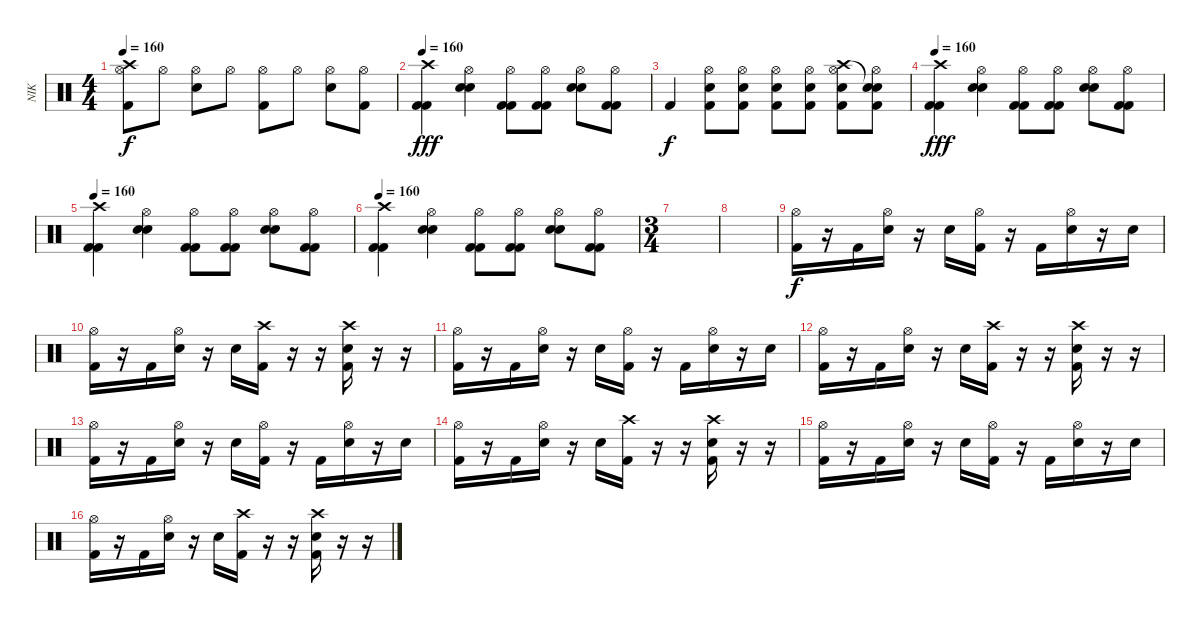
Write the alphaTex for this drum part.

\track ("NIK" "NIK") {instrument percussion}
\staff {score}
\articulation defaults
\ts (4 4)
\tempo 160
\clef neutral
\ks c
("Crash high (hit)" "Hi-Hat (open)" "Kick (hit) 2").8{dy f} "Hi-Hat (open)".8 ("Hi-Hat (open)" "Electric Snare (hit)").8 "Hi-Hat (open)".8 ("Hi-Hat (open)" "Kick (hit) 2").8 "Hi-Hat (open)".8 ("Hi-Hat (open)" "Electric Snare (hit)").8 ("Hi-Hat (open)" "Kick (hit) 2").8 |
\tempo 160
("Crash high (hit)" "Kick (hit) 2" "Kick (hit) 2").4{dy fff} ("Hi-Hat (open)" "Electric Snare (hit)" "Electric Snare (hit)").4 ("Hi-Hat (open)" "Kick (hit) 2" "Kick (hit) 2").8 ("Hi-Hat (open)" "Kick (hit) 2" "Kick (hit) 2").8 ("Hi-Hat (open)" "Electric Snare (hit)" "Electric Snare (hit)").8 ("Hi-Hat (open)" "Kick (hit) 2" "Kick (hit) 2").8 |
"Kick (hit) 2".4{dy f} ("Electric Snare (hit)" "Hi-Hat (open)" "Kick (hit) 2").8 ("Electric Snare (hit)" "Hi-Hat (open)" "Kick (hit) 2").8 ("Electric Snare (hit)" "Hi-Hat (open)" "Kick (hit) 2").8 ("Electric Snare (hit)" "Hi-Hat (open)" "Kick (hit) 2").8 ("Electric Snare (hit)" "Hi-Hat (open)" "Kick (hit) 2" "Crash high (hit)").8 ("Electric Snare (hit)" "Hi-Hat (open)" "Kick (hit) 2" "Snare (hit)"{t}).8 |
\tempo 160
("Crash high (hit)" "Kick (hit) 2" "Kick (hit) 2").4{dy fff} ("Hi-Hat (open)" "Electric Snare (hit)" "Electric Snare (hit)").4 ("Hi-Hat (open)" "Kick (hit) 2" "Kick (hit) 2").8 ("Hi-Hat (open)" "Kick (hit) 2" "Kick (hit) 2").8 ("Hi-Hat (open)" "Electric Snare (hit)" "Electric Snare (hit)").8 ("Hi-Hat (open)" "Kick (hit) 2" "Kick (hit) 2").8 |
\tempo 160
("Crash high (hit)" "Kick (hit) 2" "Kick (hit) 2").4 ("Hi-Hat (open)" "Electric Snare (hit)" "Electric Snare (hit)").4 ("Hi-Hat (open)" "Kick (hit) 2" "Kick (hit) 2").8 ("Hi-Hat (open)" "Kick (hit) 2" "Kick (hit) 2").8 ("Hi-Hat (open)" "Electric Snare (hit)" "Electric Snare (hit)").8 ("Hi-Hat (open)" "Kick (hit) 2" "Kick (hit) 2").8 |
\tempo 160
("Crash high (hit)" "Kick (hit) 2" "Kick (hit) 2").4 ("Hi-Hat (open)" "Electric Snare (hit)" "Electric Snare (hit)").4 ("Hi-Hat (open)" "Kick (hit) 2" "Kick (hit) 2").8 ("Hi-Hat (open)" "Kick (hit) 2" "Kick (hit) 2").8 ("Hi-Hat (open)" "Electric Snare (hit)" "Electric Snare (hit)").8 ("Hi-Hat (open)" "Kick (hit) 2" "Kick (hit) 2").8 |
\ts (3 4)
|
|
("Hi-Hat (open)" "Kick (hit) 2").16{dy f} r.16 "Kick (hit) 2".16 ("Hi-Hat (open)" "Snare (hit) 2").16 r.16 "Snare (hit) 2".16 ("Hi-Hat (open)" "Kick (hit) 2").16 r.16 "Kick (hit) 2".16 ("Hi-Hat (open)" "Snare (hit) 2").16 r.16 "Snare (hit) 2".16 |
("Hi-Hat (open)" "Kick (hit) 2").16 r.16 "Kick (hit) 2".16 ("Hi-Hat (open)" "Snare (hit) 2").16 r.16 "Snare (hit) 2".16 ("Crash high (hit)" "Kick (hit) 2").16 r.16 r.16 ("Crash high (hit)" "Snare (hit) 2" "Kick (hit) 2").16 r.16 r.16 |
("Hi-Hat (open)" "Kick (hit) 2").16 r.16 "Kick (hit) 2".16 ("Hi-Hat (open)" "Snare (hit) 2").16 r.16 "Snare (hit) 2".16 ("Hi-Hat (open)" "Kick (hit) 2").16 r.16 "Kick (hit) 2".16 ("Hi-Hat (open)" "Snare (hit) 2").16 r.16 "Snare (hit) 2".16 |
("Hi-Hat (open)" "Kick (hit) 2").16 r.16 "Kick (hit) 2".16 ("Hi-Hat (open)" "Snare (hit) 2").16 r.16 "Snare (hit) 2".16 ("Crash high (hit)" "Kick (hit) 2").16 r.16 r.16 ("Crash high (hit)" "Snare (hit) 2" "Kick (hit) 2").16 r.16 r.16 |
("Hi-Hat (open)" "Kick (hit) 2").16 r.16 "Kick (hit) 2".16 ("Hi-Hat (open)" "Snare (hit) 2").16 r.16 "Snare (hit) 2".16 ("Hi-Hat (open)" "Kick (hit) 2").16 r.16 "Kick (hit) 2".16 ("Hi-Hat (open)" "Snare (hit) 2").16 r.16 "Snare (hit) 2".16 |
("Hi-Hat (open)" "Kick (hit) 2").16 r.16 "Kick (hit) 2".16 ("Hi-Hat (open)" "Snare (hit) 2").16 r.16 "Snare (hit) 2".16 ("Crash high (hit)" "Kick (hit) 2").16 r.16 r.16 ("Crash high (hit)" "Snare (hit) 2" "Kick (hit) 2").16 r.16 r.16 |
("Hi-Hat (open)" "Kick (hit) 2").16 r.16 "Kick (hit) 2".16 ("Hi-Hat (open)" "Snare (hit) 2").16 r.16 "Snare (hit) 2".16 ("Hi-Hat (open)" "Kick (hit) 2").16 r.16 "Kick (hit) 2".16 ("Hi-Hat (open)" "Snare (hit) 2").16 r.16 "Snare (hit) 2".16 |
("Hi-Hat (open)" "Kick (hit) 2").16 r.16 "Kick (hit) 2".16 ("Hi-Hat (open)" "Snare (hit) 2").16 r.16 "Snare (hit) 2".16 ("Crash high (hit)" "Kick (hit) 2").16 r.16 r.16 ("Crash high (hit)" "Snare (hit) 2" "Kick (hit) 2").16 r.16 r.16
